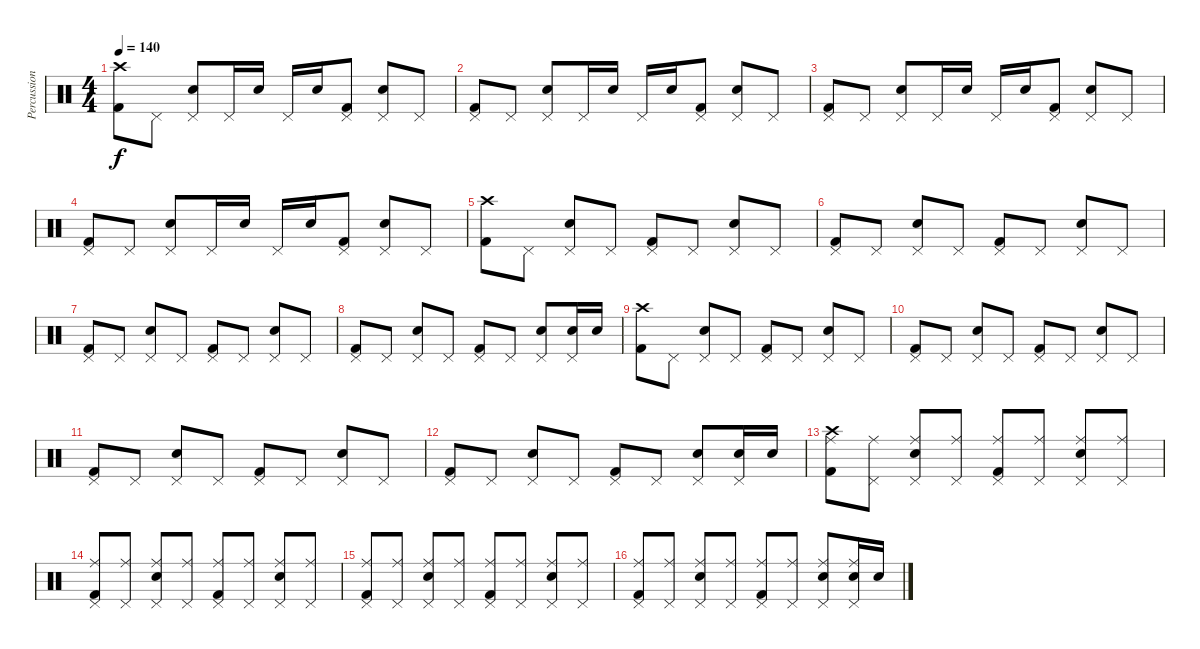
\track ("Percussion" "Percussion") {instrument percussion}
\staff {score}
\articulation defaults
\ts (4 4)
\tempo 140
\clef neutral
\ks c
("Crash high (hit)" "Kick (hit) 2").8{dy f} "Pedal Hi-Hat (hit)".8 ("Pedal Hi-Hat (hit)" "Electric Snare (hit)").8 "Pedal Hi-Hat (hit)".16 "Electric Snare (hit)".16 "Pedal Hi-Hat (hit)".16 "Electric Snare (hit)".16 ("Pedal Hi-Hat (hit)" "Kick (hit) 2").8 ("Pedal Hi-Hat (hit)" "Electric Snare (hit)").8 "Pedal Hi-Hat (hit)".8 |
("Pedal Hi-Hat (hit)" "Kick (hit) 2").8 "Pedal Hi-Hat (hit)".8 ("Pedal Hi-Hat (hit)" "Electric Snare (hit)").8 "Pedal Hi-Hat (hit)".16 "Electric Snare (hit)".16 "Pedal Hi-Hat (hit)".16 "Electric Snare (hit)".16 ("Pedal Hi-Hat (hit)" "Kick (hit) 2").8 ("Pedal Hi-Hat (hit)" "Electric Snare (hit)").8 "Pedal Hi-Hat (hit)".8 |
("Pedal Hi-Hat (hit)" "Kick (hit) 2").8 "Pedal Hi-Hat (hit)".8 ("Pedal Hi-Hat (hit)" "Electric Snare (hit)").8 "Pedal Hi-Hat (hit)".16 "Electric Snare (hit)".16 "Pedal Hi-Hat (hit)".16 "Electric Snare (hit)".16 ("Pedal Hi-Hat (hit)" "Kick (hit) 2").8 ("Pedal Hi-Hat (hit)" "Electric Snare (hit)").8 "Pedal Hi-Hat (hit)".8 |
("Pedal Hi-Hat (hit)" "Kick (hit) 2").8 "Pedal Hi-Hat (hit)".8 ("Pedal Hi-Hat (hit)" "Electric Snare (hit)").8 "Pedal Hi-Hat (hit)".16 "Electric Snare (hit)".16 "Pedal Hi-Hat (hit)".16 "Electric Snare (hit)".16 ("Pedal Hi-Hat (hit)" "Kick (hit) 2").8 ("Pedal Hi-Hat (hit)" "Electric Snare (hit)").8 "Pedal Hi-Hat (hit)".8 |
("Crash high (hit)" "Kick (hit) 2").8 "Pedal Hi-Hat (hit)".8 ("Pedal Hi-Hat (hit)" "Electric Snare (hit)").8 "Pedal Hi-Hat (hit)".8 ("Pedal Hi-Hat (hit)" "Kick (hit) 2").8 "Pedal Hi-Hat (hit)".8 ("Pedal Hi-Hat (hit)" "Electric Snare (hit)").8 "Pedal Hi-Hat (hit)".8 |
("Pedal Hi-Hat (hit)" "Kick (hit) 2").8 "Pedal Hi-Hat (hit)".8 ("Pedal Hi-Hat (hit)" "Electric Snare (hit)").8 "Pedal Hi-Hat (hit)".8 ("Pedal Hi-Hat (hit)" "Kick (hit) 2").8 "Pedal Hi-Hat (hit)".8 ("Pedal Hi-Hat (hit)" "Electric Snare (hit)").8 "Pedal Hi-Hat (hit)".8 |
("Pedal Hi-Hat (hit)" "Kick (hit) 2").8 "Pedal Hi-Hat (hit)".8 ("Pedal Hi-Hat (hit)" "Electric Snare (hit)").8 "Pedal Hi-Hat (hit)".8 ("Pedal Hi-Hat (hit)" "Kick (hit) 2").8 "Pedal Hi-Hat (hit)".8 ("Pedal Hi-Hat (hit)" "Electric Snare (hit)").8 "Pedal Hi-Hat (hit)".8 |
("Pedal Hi-Hat (hit)" "Kick (hit) 2").8 "Pedal Hi-Hat (hit)".8 ("Pedal Hi-Hat (hit)" "Electric Snare (hit)").8 "Pedal Hi-Hat (hit)".8 ("Pedal Hi-Hat (hit)" "Kick (hit) 2").8 "Pedal Hi-Hat (hit)".8 ("Pedal Hi-Hat (hit)" "Electric Snare (hit)").8 ("Pedal Hi-Hat (hit)" "Electric Snare (hit)").16 "Electric Snare (hit)".16 |
("Crash high (hit)" "Kick (hit) 2").8 "Pedal Hi-Hat (hit)".8 ("Pedal Hi-Hat (hit)" "Electric Snare (hit)").8 "Pedal Hi-Hat (hit)".8 ("Pedal Hi-Hat (hit)" "Kick (hit) 2").8 "Pedal Hi-Hat (hit)".8 ("Pedal Hi-Hat (hit)" "Electric Snare (hit)").8 "Pedal Hi-Hat (hit)".8 |
("Pedal Hi-Hat (hit)" "Kick (hit) 2").8 "Pedal Hi-Hat (hit)".8 ("Pedal Hi-Hat (hit)" "Electric Snare (hit)").8 "Pedal Hi-Hat (hit)".8 ("Pedal Hi-Hat (hit)" "Kick (hit) 2").8 "Pedal Hi-Hat (hit)".8 ("Pedal Hi-Hat (hit)" "Electric Snare (hit)").8 "Pedal Hi-Hat (hit)".8 |
("Pedal Hi-Hat (hit)" "Kick (hit) 2").8 "Pedal Hi-Hat (hit)".8 ("Pedal Hi-Hat (hit)" "Electric Snare (hit)").8 "Pedal Hi-Hat (hit)".8 ("Pedal Hi-Hat (hit)" "Kick (hit) 2").8 "Pedal Hi-Hat (hit)".8 ("Pedal Hi-Hat (hit)" "Electric Snare (hit)").8 "Pedal Hi-Hat (hit)".8 |
("Pedal Hi-Hat (hit)" "Kick (hit) 2").8 "Pedal Hi-Hat (hit)".8 ("Pedal Hi-Hat (hit)" "Electric Snare (hit)").8 "Pedal Hi-Hat (hit)".8 ("Pedal Hi-Hat (hit)" "Kick (hit) 2").8 "Pedal Hi-Hat (hit)".8 ("Pedal Hi-Hat (hit)" "Electric Snare (hit)").8 ("Pedal Hi-Hat (hit)" "Electric Snare (hit)").16 "Electric Snare (hit)".16 |
("Crash high (hit)" "Kick (hit) 2" "Ride (middle)").8 ("Pedal Hi-Hat (hit)" "Ride (middle)").8 ("Pedal Hi-Hat (hit)" "Electric Snare (hit)" "Ride (middle)").8 ("Pedal Hi-Hat (hit)" "Ride (middle)").8 ("Pedal Hi-Hat (hit)" "Kick (hit) 2" "Ride (middle)").8 ("Pedal Hi-Hat (hit)" "Ride (middle)").8 ("Pedal Hi-Hat (hit)" "Electric Snare (hit)" "Ride (middle)").8 ("Pedal Hi-Hat (hit)" "Ride (middle)").8 |
("Pedal Hi-Hat (hit)" "Kick (hit) 2" "Ride (middle)").8 ("Pedal Hi-Hat (hit)" "Ride (middle)").8 ("Pedal Hi-Hat (hit)" "Electric Snare (hit)" "Ride (middle)").8 ("Pedal Hi-Hat (hit)" "Ride (middle)").8 ("Pedal Hi-Hat (hit)" "Kick (hit) 2" "Ride (middle)").8 ("Pedal Hi-Hat (hit)" "Ride (middle)").8 ("Pedal Hi-Hat (hit)" "Electric Snare (hit)" "Ride (middle)").8 ("Pedal Hi-Hat (hit)" "Ride (middle)").8 |
("Pedal Hi-Hat (hit)" "Kick (hit) 2" "Ride (middle)").8 ("Pedal Hi-Hat (hit)" "Ride (middle)").8 ("Pedal Hi-Hat (hit)" "Electric Snare (hit)" "Ride (middle)").8 ("Pedal Hi-Hat (hit)" "Ride (middle)").8 ("Pedal Hi-Hat (hit)" "Kick (hit) 2" "Ride (middle)").8 ("Pedal Hi-Hat (hit)" "Ride (middle)").8 ("Pedal Hi-Hat (hit)" "Electric Snare (hit)" "Ride (middle)").8 ("Pedal Hi-Hat (hit)" "Ride (middle)").8 |
("Pedal Hi-Hat (hit)" "Kick (hit) 2" "Ride (middle)").8 ("Pedal Hi-Hat (hit)" "Ride (middle)").8 ("Pedal Hi-Hat (hit)" "Electric Snare (hit)" "Ride (middle)").8 ("Pedal Hi-Hat (hit)" "Ride (middle)").8 ("Pedal Hi-Hat (hit)" "Kick (hit) 2" "Ride (middle)").8 ("Pedal Hi-Hat (hit)" "Ride (middle)").8 ("Pedal Hi-Hat (hit)" "Electric Snare (hit)" "Ride (middle)").8 ("Pedal Hi-Hat (hit)" "Electric Snare (hit)" "Ride (middle)").16 "Electric Snare (hit)".16
